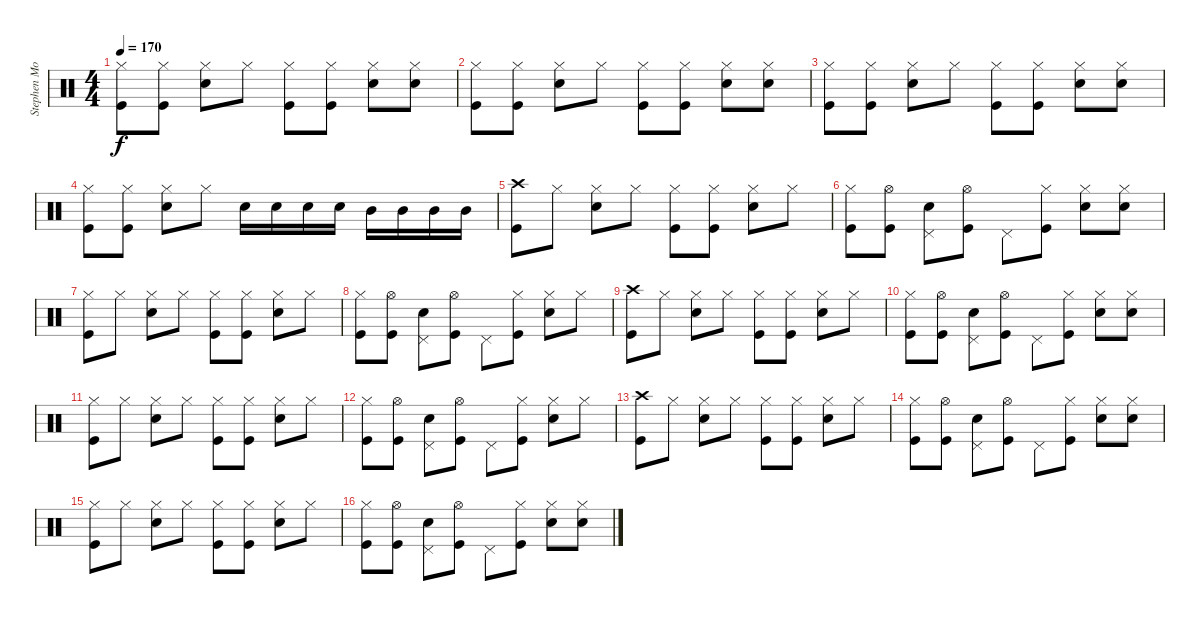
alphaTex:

\track ("Stephen Morris (Drums)" "Stephen Mo") {instrument percussion}
\staff {score}
\articulation defaults
\ts (4 4)
\tempo 170
\clef neutral
\ks c
("Hi-Hat (closed)" "Kick (hit)").8{dy f} ("Hi-Hat (closed)" "Kick (hit)").8 ("Hi-Hat (closed)" "Electric Snare (hit)").8 "Hi-Hat (closed)".8 ("Hi-Hat (closed)" "Kick (hit)").8 ("Hi-Hat (closed)" "Kick (hit)").8 ("Hi-Hat (closed)" "Electric Snare (hit)").8 ("Hi-Hat (closed)" "Electric Snare (hit)").8 |
("Hi-Hat (closed)" "Kick (hit)").8 ("Hi-Hat (closed)" "Kick (hit)").8 ("Hi-Hat (closed)" "Electric Snare (hit)").8 "Hi-Hat (closed)".8 ("Hi-Hat (closed)" "Kick (hit)").8 ("Hi-Hat (closed)" "Kick (hit)").8 ("Hi-Hat (closed)" "Electric Snare (hit)").8 ("Hi-Hat (closed)" "Electric Snare (hit)").8 |
("Hi-Hat (closed)" "Kick (hit)").8 ("Hi-Hat (closed)" "Kick (hit)").8 ("Hi-Hat (closed)" "Electric Snare (hit)").8 "Hi-Hat (closed)".8 ("Hi-Hat (closed)" "Kick (hit)").8 ("Hi-Hat (closed)" "Kick (hit)").8 ("Hi-Hat (closed)" "Electric Snare (hit)").8 ("Hi-Hat (closed)" "Electric Snare (hit)").8 |
("Hi-Hat (closed)" "Kick (hit)").8 ("Hi-Hat (closed)" "Kick (hit)").8 ("Hi-Hat (closed)" "Electric Snare (hit)").8 "Hi-Hat (closed)".8 "Electric Snare (hit)".16 "Electric Snare (hit)".16 "Electric Snare (hit)".16 "Electric Snare (hit)".16 "Mid Tom (hit)".16 "Mid Tom (hit)".16 "Mid Tom (hit)".16 "Mid Tom (hit)".16 |
("Crash high (hit)" "Kick (hit)").8 "Hi-Hat (closed)".8 ("Hi-Hat (closed)" "Electric Snare (hit)").8 "Hi-Hat (closed)".8 ("Hi-Hat (closed)" "Kick (hit)").8 ("Hi-Hat (closed)" "Kick (hit)").8 ("Hi-Hat (closed)" "Electric Snare (hit)").8 "Hi-Hat (closed)".8 |
("Hi-Hat (closed)" "Kick (hit)").8 ("Hi-Hat (open)" "Kick (hit)").8 ("Pedal Hi-Hat (hit)" "Electric Snare (hit)").8 ("Hi-Hat (open)" "Kick (hit)").8 "Pedal Hi-Hat (hit)".8 ("Hi-Hat (closed)" "Kick (hit)").8 ("Hi-Hat (closed)" "Electric Snare (hit)").8 ("Hi-Hat (closed)" "Electric Snare (hit)").8 |
("Hi-Hat (closed)" "Kick (hit)").8 "Hi-Hat (closed)".8 ("Hi-Hat (closed)" "Electric Snare (hit)").8 "Hi-Hat (closed)".8 ("Hi-Hat (closed)" "Kick (hit)").8 ("Hi-Hat (closed)" "Kick (hit)").8 ("Hi-Hat (closed)" "Electric Snare (hit)").8 "Hi-Hat (closed)".8 |
("Hi-Hat (closed)" "Kick (hit)").8 ("Hi-Hat (open)" "Kick (hit)").8 ("Pedal Hi-Hat (hit)" "Electric Snare (hit)").8 ("Hi-Hat (open)" "Kick (hit)").8 "Pedal Hi-Hat (hit)".8 ("Hi-Hat (closed)" "Kick (hit)").8 ("Hi-Hat (closed)" "Electric Snare (hit)").8 "Hi-Hat (closed)".8 |
("Crash high (hit)" "Kick (hit)").8 "Hi-Hat (closed)".8 ("Hi-Hat (closed)" "Electric Snare (hit)").8 "Hi-Hat (closed)".8 ("Hi-Hat (closed)" "Kick (hit)").8 ("Hi-Hat (closed)" "Kick (hit)").8 ("Hi-Hat (closed)" "Electric Snare (hit)").8 "Hi-Hat (closed)".8 |
("Hi-Hat (closed)" "Kick (hit)").8 ("Hi-Hat (open)" "Kick (hit)").8 ("Pedal Hi-Hat (hit)" "Electric Snare (hit)").8 ("Hi-Hat (open)" "Kick (hit)").8 "Pedal Hi-Hat (hit)".8 ("Hi-Hat (closed)" "Kick (hit)").8 ("Hi-Hat (closed)" "Electric Snare (hit)").8 ("Hi-Hat (closed)" "Electric Snare (hit)").8 |
("Hi-Hat (closed)" "Kick (hit)").8 "Hi-Hat (closed)".8 ("Hi-Hat (closed)" "Electric Snare (hit)").8 "Hi-Hat (closed)".8 ("Hi-Hat (closed)" "Kick (hit)").8 ("Hi-Hat (closed)" "Kick (hit)").8 ("Hi-Hat (closed)" "Electric Snare (hit)").8 "Hi-Hat (closed)".8 |
("Hi-Hat (closed)" "Kick (hit)").8 ("Hi-Hat (open)" "Kick (hit)").8 ("Pedal Hi-Hat (hit)" "Electric Snare (hit)").8 ("Hi-Hat (open)" "Kick (hit)").8 "Pedal Hi-Hat (hit)".8 ("Hi-Hat (closed)" "Kick (hit)").8 ("Hi-Hat (closed)" "Electric Snare (hit)").8 "Hi-Hat (closed)".8 |
("Crash high (hit)" "Kick (hit)").8 "Hi-Hat (closed)".8 ("Hi-Hat (closed)" "Electric Snare (hit)").8 "Hi-Hat (closed)".8 ("Hi-Hat (closed)" "Kick (hit)").8 ("Hi-Hat (closed)" "Kick (hit)").8 ("Hi-Hat (closed)" "Electric Snare (hit)").8 "Hi-Hat (closed)".8 |
("Hi-Hat (closed)" "Kick (hit)").8 ("Hi-Hat (open)" "Kick (hit)").8 ("Pedal Hi-Hat (hit)" "Electric Snare (hit)").8 ("Hi-Hat (open)" "Kick (hit)").8 "Pedal Hi-Hat (hit)".8 ("Hi-Hat (closed)" "Kick (hit)").8 ("Hi-Hat (closed)" "Electric Snare (hit)").8 ("Hi-Hat (closed)" "Electric Snare (hit)").8 |
("Hi-Hat (closed)" "Kick (hit)").8 "Hi-Hat (closed)".8 ("Hi-Hat (closed)" "Electric Snare (hit)").8 "Hi-Hat (closed)".8 ("Hi-Hat (closed)" "Kick (hit)").8 ("Hi-Hat (closed)" "Kick (hit)").8 ("Hi-Hat (closed)" "Electric Snare (hit)").8 "Hi-Hat (closed)".8 |
("Hi-Hat (closed)" "Kick (hit)").8 ("Hi-Hat (open)" "Kick (hit)").8 ("Pedal Hi-Hat (hit)" "Electric Snare (hit)").8 ("Hi-Hat (open)" "Kick (hit)").8 "Pedal Hi-Hat (hit)".8 ("Hi-Hat (closed)" "Kick (hit)").8 ("Hi-Hat (closed)" "Electric Snare (hit)").8 ("Hi-Hat (closed)" "Electric Snare (hit)").8
